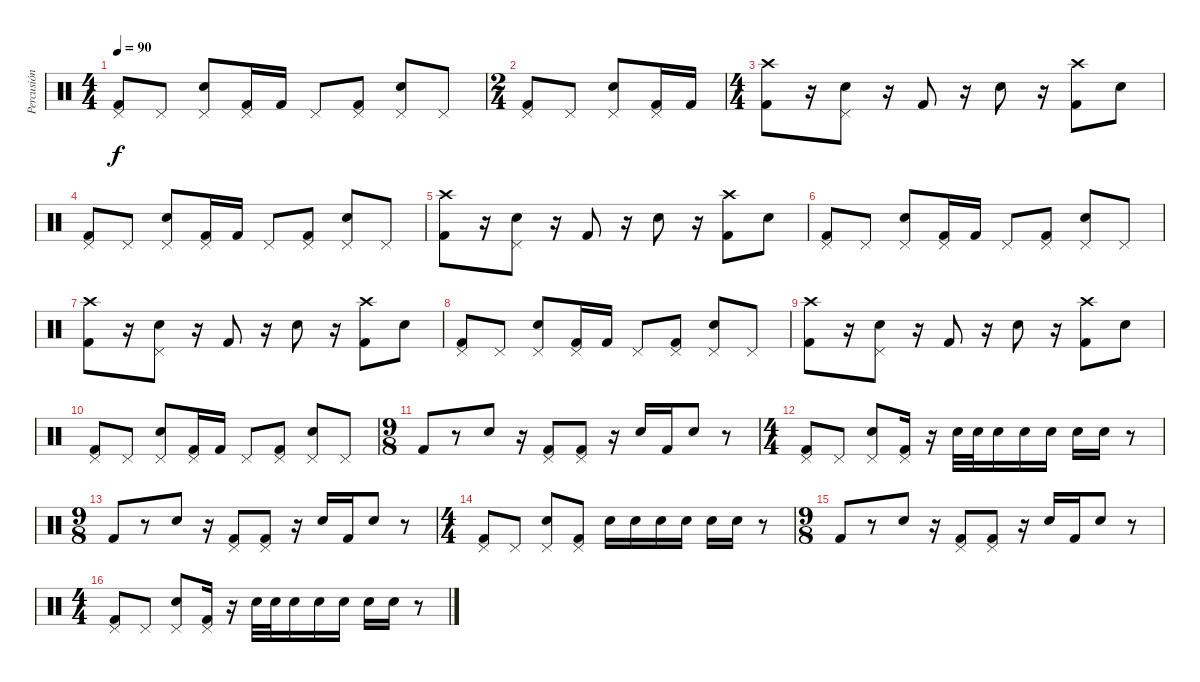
\track ("Percusión" "Percusión") {instrument percussion}
\staff {score}
\articulation defaults
\ts (4 4)
\tempo 90
\clef neutral
\ks c
("Pedal Hi-Hat (hit)" "Kick (hit) 2").8{dy f} "Pedal Hi-Hat (hit)".8 ("Pedal Hi-Hat (hit)" "Electric Snare (hit)").8 ("Pedal Hi-Hat (hit)" "Kick (hit) 2").16 "Kick (hit) 2".16 "Pedal Hi-Hat (hit)".8 ("Pedal Hi-Hat (hit)" "Kick (hit) 2").8 ("Pedal Hi-Hat (hit)" "Electric Snare (hit)").8 "Pedal Hi-Hat (hit)".8 |
\ts (2 4)
("Pedal Hi-Hat (hit)" "Kick (hit) 2").8 "Pedal Hi-Hat (hit)".8 ("Pedal Hi-Hat (hit)" "Electric Snare (hit)").8 ("Pedal Hi-Hat (hit)" "Kick (hit) 2").16 "Kick (hit) 2".16 |
\ts (4 4)
("Crash high (hit)" "Kick (hit) 2").8 r.16 ("Pedal Hi-Hat (hit)" "Electric Snare (hit)").8 r.16 "Kick (hit) 2".8 r.16 "Electric Snare (hit)".8 r.16 ("Crash high (hit)" "Kick (hit) 2").8 "Electric Snare (hit)".8 |
("Pedal Hi-Hat (hit)" "Kick (hit) 2").8 "Pedal Hi-Hat (hit)".8 ("Pedal Hi-Hat (hit)" "Electric Snare (hit)").8 ("Pedal Hi-Hat (hit)" "Kick (hit) 2").16 "Kick (hit) 2".16 "Pedal Hi-Hat (hit)".8 ("Pedal Hi-Hat (hit)" "Kick (hit) 2").8 ("Pedal Hi-Hat (hit)" "Electric Snare (hit)").8 "Pedal Hi-Hat (hit)".8 |
("Crash high (hit)" "Kick (hit) 2").8 r.16 ("Pedal Hi-Hat (hit)" "Electric Snare (hit)").8 r.16 "Kick (hit) 2".8 r.16 "Electric Snare (hit)".8 r.16 ("Crash high (hit)" "Kick (hit) 2").8 "Electric Snare (hit)".8 |
("Pedal Hi-Hat (hit)" "Kick (hit) 2").8 "Pedal Hi-Hat (hit)".8 ("Pedal Hi-Hat (hit)" "Electric Snare (hit)").8 ("Pedal Hi-Hat (hit)" "Kick (hit) 2").16 "Kick (hit) 2".16 "Pedal Hi-Hat (hit)".8 ("Pedal Hi-Hat (hit)" "Kick (hit) 2").8 ("Pedal Hi-Hat (hit)" "Electric Snare (hit)").8 "Pedal Hi-Hat (hit)".8 |
("Crash high (hit)" "Kick (hit) 2").8 r.16 ("Pedal Hi-Hat (hit)" "Electric Snare (hit)").8 r.16 "Kick (hit) 2".8 r.16 "Electric Snare (hit)".8 r.16 ("Crash high (hit)" "Kick (hit) 2").8 "Electric Snare (hit)".8 |
("Pedal Hi-Hat (hit)" "Kick (hit) 2").8 "Pedal Hi-Hat (hit)".8 ("Pedal Hi-Hat (hit)" "Electric Snare (hit)").8 ("Pedal Hi-Hat (hit)" "Kick (hit) 2").16 "Kick (hit) 2".16 "Pedal Hi-Hat (hit)".8 ("Pedal Hi-Hat (hit)" "Kick (hit) 2").8 ("Pedal Hi-Hat (hit)" "Electric Snare (hit)").8 "Pedal Hi-Hat (hit)".8 |
("Crash high (hit)" "Kick (hit) 2").8 r.16 ("Pedal Hi-Hat (hit)" "Electric Snare (hit)").8 r.16 "Kick (hit) 2".8 r.16 "Electric Snare (hit)".8 r.16 ("Crash high (hit)" "Kick (hit) 2").8 "Electric Snare (hit)".8 |
("Pedal Hi-Hat (hit)" "Kick (hit) 2").8 "Pedal Hi-Hat (hit)".8 ("Pedal Hi-Hat (hit)" "Electric Snare (hit)").8 ("Pedal Hi-Hat (hit)" "Kick (hit) 2").16 "Kick (hit) 2".16 "Pedal Hi-Hat (hit)".8 ("Pedal Hi-Hat (hit)" "Kick (hit) 2").8 ("Pedal Hi-Hat (hit)" "Electric Snare (hit)").8 "Pedal Hi-Hat (hit)".8 |
\ts (9 8)
"Kick (hit) 2".8 r.8 "Electric Snare (hit)".8 r.16 ("Pedal Hi-Hat (hit)" "Kick (hit) 2").8 ("Pedal Hi-Hat (hit)" "Kick (hit) 2").8 r.16 "Electric Snare (hit)".16 "Kick (hit) 2".16 "Electric Snare (hit)".8 r.8 |
\ts (4 4)
("Pedal Hi-Hat (hit)" "Kick (hit) 2").8 "Pedal Hi-Hat (hit)".8 ("Pedal Hi-Hat (hit)" "Electric Snare (hit)").8 ("Pedal Hi-Hat (hit)" "Kick (hit) 2").16 r.16 "Electric Snare (hit)".32 "Electric Snare (hit)".32 "Electric Snare (hit)".16 "Electric Snare (hit)".16 "Electric Snare (hit)".16 "Electric Snare (hit)".16 "Electric Snare (hit)".16 r.8 |
\ts (9 8)
"Kick (hit) 2".8 r.8 "Electric Snare (hit)".8 r.16 ("Pedal Hi-Hat (hit)" "Kick (hit) 2").8 ("Pedal Hi-Hat (hit)" "Kick (hit) 2").8 r.16 "Electric Snare (hit)".16 "Kick (hit) 2".16 "Electric Snare (hit)".8 r.8 |
\ts (4 4)
("Pedal Hi-Hat (hit)" "Kick (hit) 2").8 "Pedal Hi-Hat (hit)".8 ("Pedal Hi-Hat (hit)" "Electric Snare (hit)").8 ("Pedal Hi-Hat (hit)" "Kick (hit) 2").8 "Electric Snare (hit)".16 "Electric Snare (hit)".16 "Electric Snare (hit)".16 "Electric Snare (hit)".16 "Electric Snare (hit)".16 "Electric Snare (hit)".16 r.8 |
\ts (9 8)
"Kick (hit) 2".8 r.8 "Electric Snare (hit)".8 r.16 ("Pedal Hi-Hat (hit)" "Kick (hit) 2").8 ("Pedal Hi-Hat (hit)" "Kick (hit) 2").8 r.16 "Electric Snare (hit)".16 "Kick (hit) 2".16 "Electric Snare (hit)".8 r.8 |
\ts (4 4)
("Pedal Hi-Hat (hit)" "Kick (hit) 2").8 "Pedal Hi-Hat (hit)".8 ("Pedal Hi-Hat (hit)" "Electric Snare (hit)").8 ("Pedal Hi-Hat (hit)" "Kick (hit) 2").16 r.16 "Electric Snare (hit)".32 "Electric Snare (hit)".32 "Electric Snare (hit)".16 "Electric Snare (hit)".16 "Electric Snare (hit)".16 "Electric Snare (hit)".16 "Electric Snare (hit)".16 r.8
